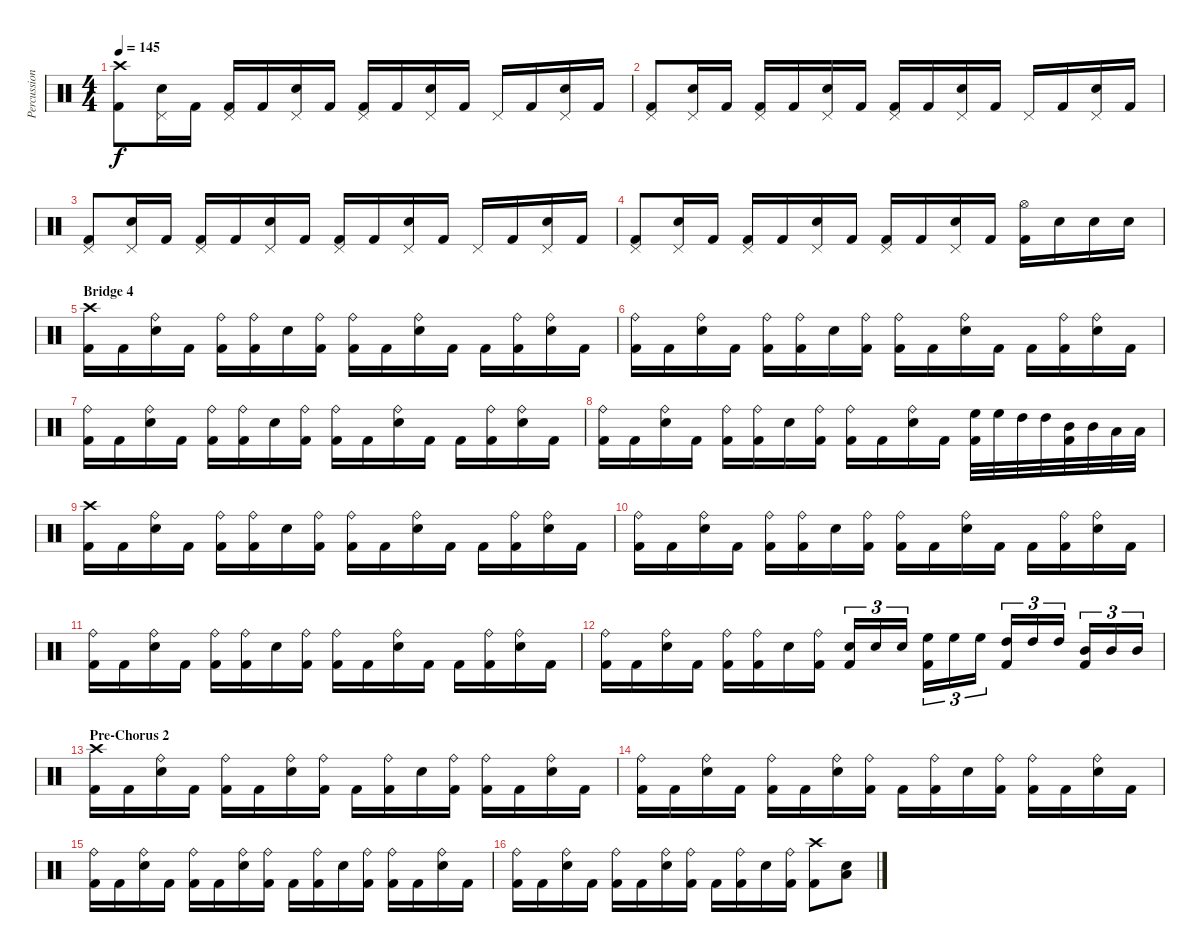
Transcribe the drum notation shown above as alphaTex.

\track ("Percussion" "Percussion") {instrument percussion}
\staff {score}
\articulation defaults
\ts (4 4)
\tempo 145
\clef neutral
\ks c
("Kick (hit) 2" "Crash high (hit)").8{dy f} ("Electric Snare (hit)" "Pedal Hi-Hat (hit)").16 "Kick (hit) 2".16 ("Kick (hit) 2" "Pedal Hi-Hat (hit)").16 "Kick (hit) 2".16 ("Electric Snare (hit)" "Pedal Hi-Hat (hit)").16 "Kick (hit) 2".16 ("Kick (hit) 2" "Pedal Hi-Hat (hit)").16 "Kick (hit) 2".16 ("Electric Snare (hit)" "Pedal Hi-Hat (hit)").16 "Kick (hit) 2".16 "Pedal Hi-Hat (hit)".16 "Kick (hit) 2".16 ("Electric Snare (hit)" "Pedal Hi-Hat (hit)").16 "Kick (hit) 2".16 |
("Kick (hit) 2" "Pedal Hi-Hat (hit)").8 ("Electric Snare (hit)" "Pedal Hi-Hat (hit)").16 "Kick (hit) 2".16 ("Kick (hit) 2" "Pedal Hi-Hat (hit)").16 "Kick (hit) 2".16 ("Electric Snare (hit)" "Pedal Hi-Hat (hit)").16 "Kick (hit) 2".16 ("Kick (hit) 2" "Pedal Hi-Hat (hit)").16 "Kick (hit) 2".16 ("Electric Snare (hit)" "Pedal Hi-Hat (hit)").16 "Kick (hit) 2".16 "Pedal Hi-Hat (hit)".16 "Kick (hit) 2".16 ("Electric Snare (hit)" "Pedal Hi-Hat (hit)").16 "Kick (hit) 2".16 |
("Kick (hit) 2" "Pedal Hi-Hat (hit)").8 ("Electric Snare (hit)" "Pedal Hi-Hat (hit)").16 "Kick (hit) 2".16 ("Kick (hit) 2" "Pedal Hi-Hat (hit)").16 "Kick (hit) 2".16 ("Electric Snare (hit)" "Pedal Hi-Hat (hit)").16 "Kick (hit) 2".16 ("Kick (hit) 2" "Pedal Hi-Hat (hit)").16 "Kick (hit) 2".16 ("Electric Snare (hit)" "Pedal Hi-Hat (hit)").16 "Kick (hit) 2".16 "Pedal Hi-Hat (hit)".16 "Kick (hit) 2".16 ("Electric Snare (hit)" "Pedal Hi-Hat (hit)").16 "Kick (hit) 2".16 |
("Kick (hit) 2" "Pedal Hi-Hat (hit)").8 ("Electric Snare (hit)" "Pedal Hi-Hat (hit)").16 "Kick (hit) 2".16 ("Kick (hit) 2" "Pedal Hi-Hat (hit)").16 "Kick (hit) 2".16 ("Electric Snare (hit)" "Pedal Hi-Hat (hit)").16 "Kick (hit) 2".16 ("Kick (hit) 2" "Pedal Hi-Hat (hit)").16 "Kick (hit) 2".16 ("Electric Snare (hit)" "Pedal Hi-Hat (hit)").16 "Kick (hit) 2".16 ("Kick (hit) 2" "Hi-Hat (open)").16 "Electric Snare (hit)".16 "Electric Snare (hit)".16 "Electric Snare (hit)".16 |
\section ("" "Bridge 4")
("Kick (hit) 2" "Crash high (hit)").16 "Kick (hit) 2".16 ("Electric Snare (hit)" "Ride (bell)").16 "Kick (hit) 2".16 ("Kick (hit) 2" "Ride (bell)").16 ("Kick (hit) 2" "Ride (bell)").16 "Electric Snare (hit)".16 ("Kick (hit) 2" "Ride (bell)").16 ("Kick (hit) 2" "Ride (bell)").16 "Kick (hit) 2".16 ("Electric Snare (hit)" "Ride (bell)").16 "Kick (hit) 2".16 "Kick (hit) 2".16 ("Kick (hit) 2" "Ride (bell)").16 ("Electric Snare (hit)" "Ride (bell)").16 "Kick (hit) 2".16 |
("Kick (hit) 2" "Ride (bell)").16 "Kick (hit) 2".16 ("Electric Snare (hit)" "Ride (bell)").16 "Kick (hit) 2".16 ("Kick (hit) 2" "Ride (bell)").16 ("Kick (hit) 2" "Ride (bell)").16 "Electric Snare (hit)".16 ("Kick (hit) 2" "Ride (bell)").16 ("Kick (hit) 2" "Ride (bell)").16 "Kick (hit) 2".16 ("Electric Snare (hit)" "Ride (bell)").16 "Kick (hit) 2".16 "Kick (hit) 2".16 ("Kick (hit) 2" "Ride (bell)").16 ("Electric Snare (hit)" "Ride (bell)").16 "Kick (hit) 2".16 |
("Kick (hit) 2" "Ride (bell)").16 "Kick (hit) 2".16 ("Electric Snare (hit)" "Ride (bell)").16 "Kick (hit) 2".16 ("Kick (hit) 2" "Ride (bell)").16 ("Kick (hit) 2" "Ride (bell)").16 "Electric Snare (hit)".16 ("Kick (hit) 2" "Ride (bell)").16 ("Kick (hit) 2" "Ride (bell)").16 "Kick (hit) 2".16 ("Electric Snare (hit)" "Ride (bell)").16 "Kick (hit) 2".16 "Kick (hit) 2".16 ("Kick (hit) 2" "Ride (bell)").16 ("Electric Snare (hit)" "Ride (bell)").16 "Kick (hit) 2".16 |
("Kick (hit) 2" "Ride (bell)").16 "Kick (hit) 2".16 ("Electric Snare (hit)" "Ride (bell)").16 "Kick (hit) 2".16 ("Kick (hit) 2" "Ride (bell)").16 ("Kick (hit) 2" "Ride (bell)").16 "Electric Snare (hit)".16 ("Kick (hit) 2" "Ride (bell)").16 ("Kick (hit) 2" "Ride (bell)").16 "Kick (hit) 2".16 ("Electric Snare (hit)" "Ride (bell)").16 "Kick (hit) 2".16 ("High Floor Tom (hit)" "Kick (hit) 2").32 "High Floor Tom (hit)".32 "High Tom (hit)".32 "High Tom (hit)".32 ("Mid Tom (hit)" "Kick (hit) 2").32 "Mid Tom (hit)".32 "Low Tom (hit)".32 "Low Tom (hit)".32 |
("Kick (hit) 2" "Crash high (hit)").16 "Kick (hit) 2".16 ("Electric Snare (hit)" "Ride (bell)").16 "Kick (hit) 2".16 ("Kick (hit) 2" "Ride (bell)").16 ("Kick (hit) 2" "Ride (bell)").16 "Electric Snare (hit)".16 ("Kick (hit) 2" "Ride (bell)").16 ("Kick (hit) 2" "Ride (bell)").16 "Kick (hit) 2".16 ("Electric Snare (hit)" "Ride (bell)").16 "Kick (hit) 2".16 "Kick (hit) 2".16 ("Kick (hit) 2" "Ride (bell)").16 ("Electric Snare (hit)" "Ride (bell)").16 "Kick (hit) 2".16 |
("Kick (hit) 2" "Ride (bell)").16 "Kick (hit) 2".16 ("Electric Snare (hit)" "Ride (bell)").16 "Kick (hit) 2".16 ("Kick (hit) 2" "Ride (bell)").16 ("Kick (hit) 2" "Ride (bell)").16 "Electric Snare (hit)".16 ("Kick (hit) 2" "Ride (bell)").16 ("Kick (hit) 2" "Ride (bell)").16 "Kick (hit) 2".16 ("Electric Snare (hit)" "Ride (bell)").16 "Kick (hit) 2".16 "Kick (hit) 2".16 ("Kick (hit) 2" "Ride (bell)").16 ("Electric Snare (hit)" "Ride (bell)").16 "Kick (hit) 2".16 |
("Kick (hit) 2" "Ride (bell)").16 "Kick (hit) 2".16 ("Electric Snare (hit)" "Ride (bell)").16 "Kick (hit) 2".16 ("Kick (hit) 2" "Ride (bell)").16 ("Kick (hit) 2" "Ride (bell)").16 "Electric Snare (hit)".16 ("Kick (hit) 2" "Ride (bell)").16 ("Kick (hit) 2" "Ride (bell)").16 "Kick (hit) 2".16 ("Electric Snare (hit)" "Ride (bell)").16 "Kick (hit) 2".16 "Kick (hit) 2".16 ("Kick (hit) 2" "Ride (bell)").16 ("Electric Snare (hit)" "Ride (bell)").16 "Kick (hit) 2".16 |
("Kick (hit) 2" "Ride (bell)").16 "Kick (hit) 2".16 ("Electric Snare (hit)" "Ride (bell)").16 "Kick (hit) 2".16 ("Kick (hit) 2" "Ride (bell)").16 ("Kick (hit) 2" "Ride (bell)").16 "Electric Snare (hit)".16 ("Kick (hit) 2" "Ride (bell)").16 ("Electric Snare (hit)" "Kick (hit) 2").16{tu (3 2)} "Electric Snare (hit)".16{tu (3 2)} "Electric Snare (hit)".16{tu (3 2)} ("High Floor Tom (hit)" "Kick (hit) 2").16{tu (3 2)} "High Floor Tom (hit)".16{tu (3 2)} "High Floor Tom (hit)".16{tu (3 2)} ("High Tom (hit)" "Kick (hit) 2").16{tu (3 2)} "High Tom (hit)".16{tu (3 2)} "High Tom (hit)".16{tu (3 2)} ("Mid Tom (hit)" "Kick (hit) 2").16{tu (3 2)} "Mid Tom (hit)".16{tu (3 2)} "Mid Tom (hit)".16{tu (3 2)} |
\section ("" "Pre-Chorus 2")
("Kick (hit) 2" "Crash high (hit)").16 "Kick (hit) 2".16 ("Electric Snare (hit)" "Ride (bell)").16 "Kick (hit) 2".16 ("Kick (hit) 2" "Ride (bell)").16 "Kick (hit) 2".16 ("Electric Snare (hit)" "Ride (bell)").16 ("Kick (hit) 2" "Ride (bell)").16 "Kick (hit) 2".16 ("Kick (hit) 2" "Ride (bell)").16 "Electric Snare (hit)".16 ("Kick (hit) 2" "Ride (bell)").16 ("Kick (hit) 2" "Ride (bell)").16 "Kick (hit) 2".16 ("Electric Snare (hit)" "Ride (bell)").16 "Kick (hit) 2".16 |
("Kick (hit) 2" "Ride (bell)").16 "Kick (hit) 2".16 ("Electric Snare (hit)" "Ride (bell)").16 "Kick (hit) 2".16 ("Kick (hit) 2" "Ride (bell)").16 "Kick (hit) 2".16 ("Electric Snare (hit)" "Ride (bell)").16 ("Kick (hit) 2" "Ride (bell)").16 "Kick (hit) 2".16 ("Kick (hit) 2" "Ride (bell)").16 "Electric Snare (hit)".16 ("Kick (hit) 2" "Ride (bell)").16 ("Kick (hit) 2" "Ride (bell)").16 "Kick (hit) 2".16 ("Electric Snare (hit)" "Ride (bell)").16 "Kick (hit) 2".16 |
("Kick (hit) 2" "Ride (bell)").16 "Kick (hit) 2".16 ("Electric Snare (hit)" "Ride (bell)").16 "Kick (hit) 2".16 ("Kick (hit) 2" "Ride (bell)").16 "Kick (hit) 2".16 ("Electric Snare (hit)" "Ride (bell)").16 ("Kick (hit) 2" "Ride (bell)").16 "Kick (hit) 2".16 ("Kick (hit) 2" "Ride (bell)").16 "Electric Snare (hit)".16 ("Kick (hit) 2" "Ride (bell)").16 ("Kick (hit) 2" "Ride (bell)").16 "Kick (hit) 2".16 ("Electric Snare (hit)" "Ride (bell)").16 "Kick (hit) 2".16 |
("Kick (hit) 2" "Ride (bell)").16 "Kick (hit) 2".16 ("Electric Snare (hit)" "Ride (bell)").16 "Kick (hit) 2".16 ("Kick (hit) 2" "Ride (bell)").16 "Kick (hit) 2".16 ("Electric Snare (hit)" "Ride (bell)").16 ("Kick (hit) 2" "Ride (bell)").16 "Kick (hit) 2".16 ("Kick (hit) 2" "Ride (bell)").16 "Electric Snare (hit)".16 ("Kick (hit) 2" "Ride (bell)").16 ("Kick (hit) 2" "Crash high (hit)").8 ("Electric Snare (hit)" "Low Tom (hit)").8
